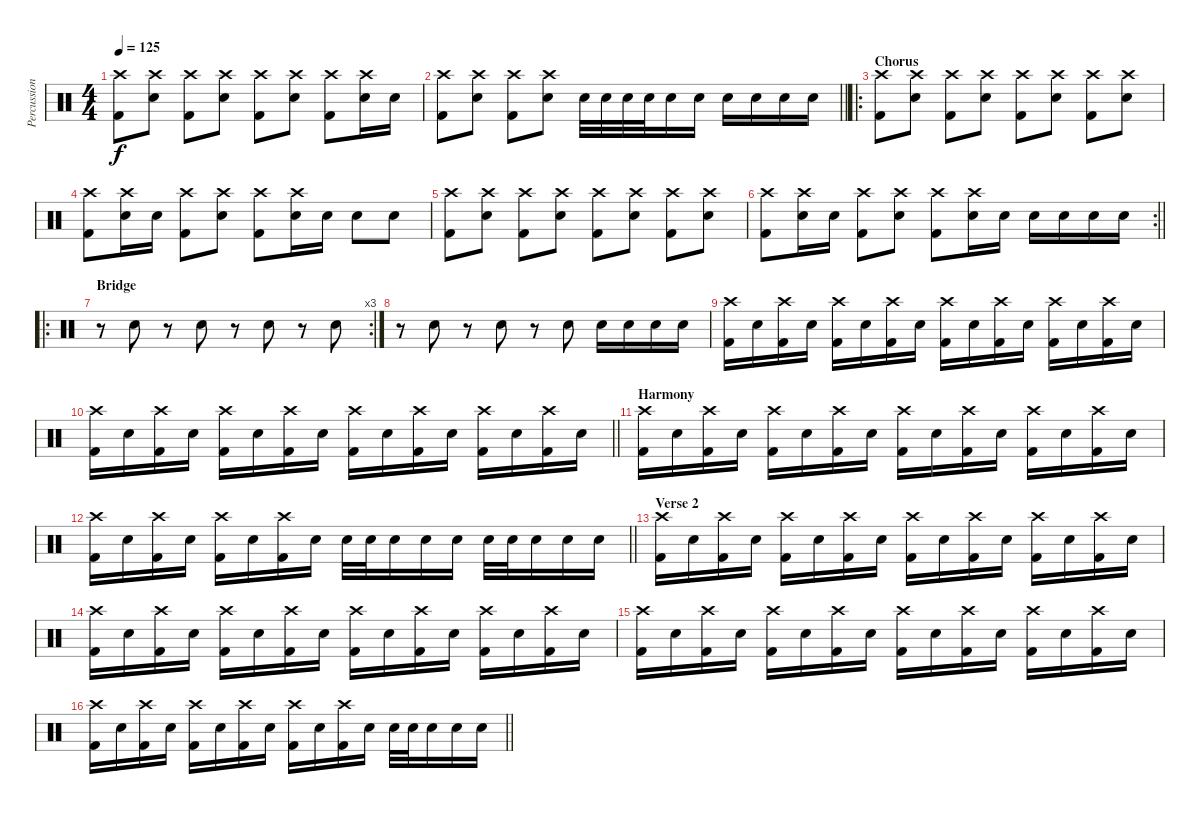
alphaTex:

\track ("Percussion" "Percussion") {instrument percussion}
\staff {score}
\articulation defaults
\ts (4 4)
\tempo 125
\clef neutral
\ks c
("Crash high (hit)" "Kick (hit) 2").8{dy f} ("Crash high (hit)" "Electric Snare (hit)").8 ("Crash high (hit)" "Kick (hit) 2").8 ("Crash high (hit)" "Electric Snare (hit)").8 ("Crash high (hit)" "Kick (hit) 2").8 ("Crash high (hit)" "Electric Snare (hit)").8 ("Crash high (hit)" "Kick (hit) 2").8 ("Crash high (hit)" "Electric Snare (hit)").16 "Electric Snare (hit)".16 |
\barLineRight lightlight
("Crash high (hit)" "Kick (hit) 2").8 ("Crash high (hit)" "Electric Snare (hit)").8 ("Crash high (hit)" "Kick (hit) 2").8 ("Crash high (hit)" "Electric Snare (hit)").8 "Electric Snare (hit)".32 "Electric Snare (hit)".32 "Electric Snare (hit)".32 "Electric Snare (hit)".32 "Electric Snare (hit)".16 "Electric Snare (hit)".16 "Electric Snare (hit)".16 "Electric Snare (hit)".16 "Electric Snare (hit)".16 "Electric Snare (hit)".16 |
\ro
\section ("" "Chorus")
("Crash high (hit)" "Kick (hit) 2").8 ("Crash high (hit)" "Electric Snare (hit)").8 ("Crash high (hit)" "Kick (hit) 2").8 ("Crash high (hit)" "Electric Snare (hit)").8 ("Crash high (hit)" "Kick (hit) 2").8 ("Crash high (hit)" "Electric Snare (hit)").8 ("Crash high (hit)" "Kick (hit) 2").8 ("Crash high (hit)" "Electric Snare (hit)").8 |
("Crash high (hit)" "Kick (hit) 2").8 ("Crash high (hit)" "Electric Snare (hit)").16 "Electric Snare (hit)".16 ("Crash high (hit)" "Kick (hit) 2").8 ("Crash high (hit)" "Electric Snare (hit)").8 ("Crash high (hit)" "Kick (hit) 2").8 ("Crash high (hit)" "Electric Snare (hit)").16 "Electric Snare (hit)".16 "Electric Snare (hit)".8 "Electric Snare (hit)".8 |
("Crash high (hit)" "Kick (hit) 2").8 ("Crash high (hit)" "Electric Snare (hit)").8 ("Crash high (hit)" "Kick (hit) 2").8 ("Crash high (hit)" "Electric Snare (hit)").8 ("Crash high (hit)" "Kick (hit) 2").8 ("Crash high (hit)" "Electric Snare (hit)").8 ("Crash high (hit)" "Kick (hit) 2").8 ("Crash high (hit)" "Electric Snare (hit)").8 |
\rc 2
\barLineRight lightlight
("Crash high (hit)" "Kick (hit) 2").8 ("Crash high (hit)" "Electric Snare (hit)").16 "Electric Snare (hit)".16 ("Crash high (hit)" "Kick (hit) 2").8 ("Crash high (hit)" "Electric Snare (hit)").8 ("Crash high (hit)" "Kick (hit) 2").8 ("Crash high (hit)" "Electric Snare (hit)").16 "Electric Snare (hit)".16 "Electric Snare (hit)".16 "Electric Snare (hit)".16 "Electric Snare (hit)".16 "Electric Snare (hit)".16 |
\ro
\rc 3
\section ("" "Bridge")
r.8 "Electric Snare (hit)".8 r.8 "Electric Snare (hit)".8 r.8 "Electric Snare (hit)".8 r.8 "Electric Snare (hit)".8 |
r.8 "Electric Snare (hit)".8 r.8 "Electric Snare (hit)".8 r.8 "Electric Snare (hit)".8 "Electric Snare (hit)".16 "Electric Snare (hit)".16 "Electric Snare (hit)".16 "Electric Snare (hit)".16 |
("Crash high (hit)" "Kick (hit) 2").16 "Electric Snare (hit)".16 ("Crash high (hit)" "Kick (hit) 2").16 "Electric Snare (hit)".16 ("Crash high (hit)" "Kick (hit) 2").16 "Electric Snare (hit)".16 ("Crash high (hit)" "Kick (hit) 2").16 "Electric Snare (hit)".16 ("Crash high (hit)" "Kick (hit) 2").16 "Electric Snare (hit)".16 ("Crash high (hit)" "Kick (hit) 2").16 "Electric Snare (hit)".16 ("Crash high (hit)" "Kick (hit) 2").16 "Electric Snare (hit)".16 ("Crash high (hit)" "Kick (hit) 2").16 "Electric Snare (hit)".16 |
\barLineRight lightlight
("Crash high (hit)" "Kick (hit) 2").16 "Electric Snare (hit)".16 ("Crash high (hit)" "Kick (hit) 2").16 "Electric Snare (hit)".16 ("Crash high (hit)" "Kick (hit) 2").16 "Electric Snare (hit)".16 ("Crash high (hit)" "Kick (hit) 2").16 "Electric Snare (hit)".16 ("Crash high (hit)" "Kick (hit) 2").16 "Electric Snare (hit)".16 ("Crash high (hit)" "Kick (hit) 2").16 "Electric Snare (hit)".16 ("Crash high (hit)" "Kick (hit) 2").16 "Electric Snare (hit)".16 ("Crash high (hit)" "Kick (hit) 2").16 "Electric Snare (hit)".16 |
\section ("" "Harmony")
("Crash high (hit)" "Kick (hit) 2").16 "Electric Snare (hit)".16 ("Crash high (hit)" "Kick (hit) 2").16 "Electric Snare (hit)".16 ("Crash high (hit)" "Kick (hit) 2").16 "Electric Snare (hit)".16 ("Crash high (hit)" "Kick (hit) 2").16 "Electric Snare (hit)".16 ("Crash high (hit)" "Kick (hit) 2").16 "Electric Snare (hit)".16 ("Crash high (hit)" "Kick (hit) 2").16 "Electric Snare (hit)".16 ("Crash high (hit)" "Kick (hit) 2").16 "Electric Snare (hit)".16 ("Crash high (hit)" "Kick (hit) 2").16 "Electric Snare (hit)".16 |
\barLineRight lightlight
("Crash high (hit)" "Kick (hit) 2").16 "Electric Snare (hit)".16 ("Crash high (hit)" "Kick (hit) 2").16 "Electric Snare (hit)".16 ("Crash high (hit)" "Kick (hit) 2").16 "Electric Snare (hit)".16 ("Crash high (hit)" "Kick (hit) 2").16 "Electric Snare (hit)".16 "Electric Snare (hit)".32 "Electric Snare (hit)".32 "Electric Snare (hit)".16 "Electric Snare (hit)".16 "Electric Snare (hit)".16 "Electric Snare (hit)".32 "Electric Snare (hit)".32 "Electric Snare (hit)".16 "Electric Snare (hit)".16 "Electric Snare (hit)".16 |
\section ("" "Verse 2")
("Crash high (hit)" "Kick (hit) 2").16 "Electric Snare (hit)".16 ("Crash high (hit)" "Kick (hit) 2").16 "Electric Snare (hit)".16 ("Crash high (hit)" "Kick (hit) 2").16 "Electric Snare (hit)".16 ("Crash high (hit)" "Kick (hit) 2").16 "Electric Snare (hit)".16 ("Crash high (hit)" "Kick (hit) 2").16 "Electric Snare (hit)".16 ("Crash high (hit)" "Kick (hit) 2").16 "Electric Snare (hit)".16 ("Crash high (hit)" "Kick (hit) 2").16 "Electric Snare (hit)".16 ("Crash high (hit)" "Kick (hit) 2").16 "Electric Snare (hit)".16 |
("Crash high (hit)" "Kick (hit) 2").16 "Electric Snare (hit)".16 ("Crash high (hit)" "Kick (hit) 2").16 "Electric Snare (hit)".16 ("Crash high (hit)" "Kick (hit) 2").16 "Electric Snare (hit)".16 ("Crash high (hit)" "Kick (hit) 2").16 "Electric Snare (hit)".16 ("Crash high (hit)" "Kick (hit) 2").16 "Electric Snare (hit)".16 ("Crash high (hit)" "Kick (hit) 2").16 "Electric Snare (hit)".16 ("Crash high (hit)" "Kick (hit) 2").16 "Electric Snare (hit)".16 ("Crash high (hit)" "Kick (hit) 2").16 "Electric Snare (hit)".16 |
("Crash high (hit)" "Kick (hit) 2").16 "Electric Snare (hit)".16 ("Crash high (hit)" "Kick (hit) 2").16 "Electric Snare (hit)".16 ("Crash high (hit)" "Kick (hit) 2").16 "Electric Snare (hit)".16 ("Crash high (hit)" "Kick (hit) 2").16 "Electric Snare (hit)".16 ("Crash high (hit)" "Kick (hit) 2").16 "Electric Snare (hit)".16 ("Crash high (hit)" "Kick (hit) 2").16 "Electric Snare (hit)".16 ("Crash high (hit)" "Kick (hit) 2").16 "Electric Snare (hit)".16 ("Crash high (hit)" "Kick (hit) 2").16 "Electric Snare (hit)".16 |
\barLineRight lightlight
("Crash high (hit)" "Kick (hit) 2").16 "Electric Snare (hit)".16 ("Crash high (hit)" "Kick (hit) 2").16 "Electric Snare (hit)".16 ("Crash high (hit)" "Kick (hit) 2").16 "Electric Snare (hit)".16 ("Crash high (hit)" "Kick (hit) 2").16 "Electric Snare (hit)".16 ("Crash high (hit)" "Kick (hit) 2").16 "Electric Snare (hit)".16 ("Crash high (hit)" "Kick (hit) 2").16 "Electric Snare (hit)".16 "Electric Snare (hit)".32 "Electric Snare (hit)".32 "Electric Snare (hit)".16 "Electric Snare (hit)".16 "Electric Snare (hit)".16
